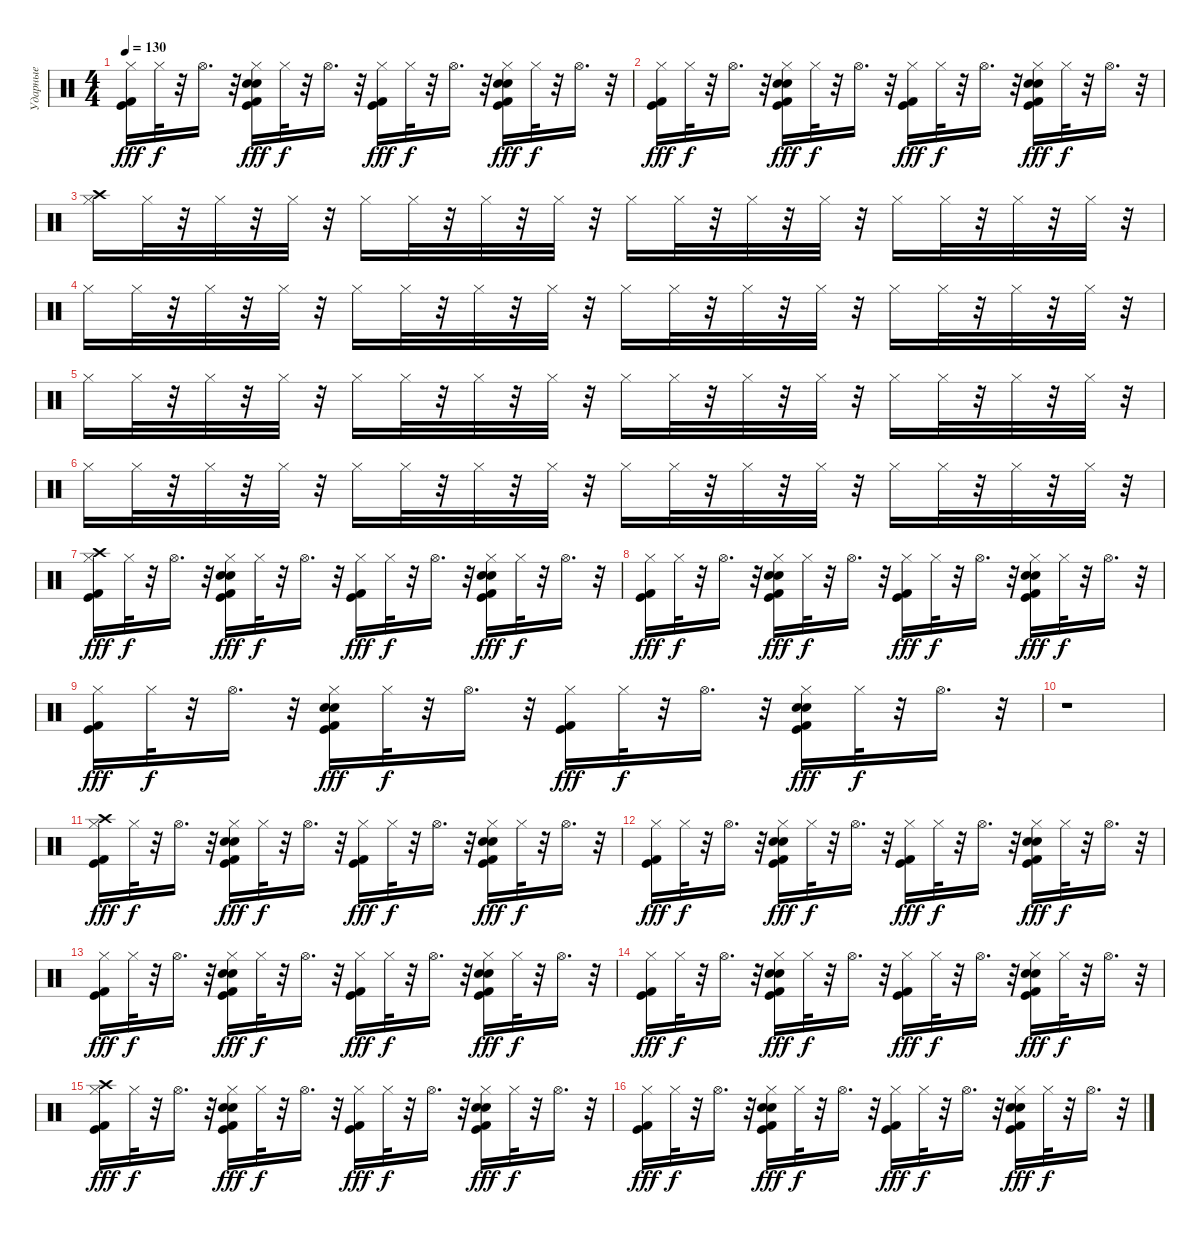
\track ("Ударные" "Ударные") {instrument percussion}
\staff {score}
\articulation defaults
\ts (4 4)
\tempo 130
\clef neutral
\ks c
("Hi-Hat (closed)" "Kick (hit) 2" "Kick (hit)").16{dy fff} "Hi-Hat (closed)".32{dy f} r.32 "Hi-Hat (open)".16{d} r.32 ("Hi-Hat (closed)" "Kick (hit) 2" "Kick (hit)" "Hand Clap (hit)" "Hand Clap (hit)").16{dy fff} "Hi-Hat (closed)".32{dy f} r.32 "Hi-Hat (open)".16{d} r.32 ("Hi-Hat (closed)" "Kick (hit) 2" "Kick (hit)").16{dy fff} "Hi-Hat (closed)".32{dy f} r.32 "Hi-Hat (open)".16{d} r.32 ("Hi-Hat (closed)" "Kick (hit) 2" "Kick (hit)" "Hand Clap (hit)" "Hand Clap (hit)").16{dy fff} "Hi-Hat (closed)".32{dy f} r.32 "Hi-Hat (open)".16{d} r.32 |
("Hi-Hat (closed)" "Kick (hit) 2" "Kick (hit)").16{dy fff} "Hi-Hat (closed)".32{dy f} r.32 "Hi-Hat (open)".16{d} r.32 ("Hi-Hat (closed)" "Kick (hit) 2" "Kick (hit)" "Hand Clap (hit)" "Hand Clap (hit)").16{dy fff} "Hi-Hat (closed)".32{dy f} r.32 "Hi-Hat (open)".16{d} r.32 ("Hi-Hat (closed)" "Kick (hit) 2" "Kick (hit)").16{dy fff} "Hi-Hat (closed)".32{dy f} r.32 "Hi-Hat (open)".16{d} r.32 ("Hi-Hat (closed)" "Kick (hit) 2" "Kick (hit)" "Hand Clap (hit)" "Hand Clap (hit)").16{dy fff} "Hi-Hat (closed)".32{dy f} r.32 "Hi-Hat (open)".16{d} r.32 |
("Crash high (hit)" "Hi-Hat (closed)").16 "Hi-Hat (closed)".32 r.32 "Hi-Hat (closed)".32 r.32 "Hi-Hat (closed)".32 r.32 "Hi-Hat (closed)".16 "Hi-Hat (closed)".32 r.32 "Hi-Hat (closed)".32 r.32 "Hi-Hat (closed)".32 r.32 "Hi-Hat (closed)".16 "Hi-Hat (closed)".32 r.32 "Hi-Hat (closed)".32 r.32 "Hi-Hat (closed)".32 r.32 "Hi-Hat (closed)".16 "Hi-Hat (closed)".32 r.32 "Hi-Hat (closed)".32 r.32 "Hi-Hat (closed)".32 r.32 |
"Hi-Hat (closed)".16 "Hi-Hat (closed)".32 r.32 "Hi-Hat (closed)".32 r.32 "Hi-Hat (closed)".32 r.32 "Hi-Hat (closed)".16 "Hi-Hat (closed)".32 r.32 "Hi-Hat (closed)".32 r.32 "Hi-Hat (closed)".32 r.32 "Hi-Hat (closed)".16 "Hi-Hat (closed)".32 r.32 "Hi-Hat (closed)".32 r.32 "Hi-Hat (closed)".32 r.32 "Hi-Hat (closed)".16 "Hi-Hat (closed)".32 r.32 "Hi-Hat (closed)".32 r.32 "Hi-Hat (closed)".32 r.32 |
"Hi-Hat (closed)".16 "Hi-Hat (closed)".32 r.32 "Hi-Hat (closed)".32 r.32 "Hi-Hat (closed)".32 r.32 "Hi-Hat (closed)".16 "Hi-Hat (closed)".32 r.32 "Hi-Hat (closed)".32 r.32 "Hi-Hat (closed)".32 r.32 "Hi-Hat (closed)".16 "Hi-Hat (closed)".32 r.32 "Hi-Hat (closed)".32 r.32 "Hi-Hat (closed)".32 r.32 "Hi-Hat (closed)".16 "Hi-Hat (closed)".32 r.32 "Hi-Hat (closed)".32 r.32 "Hi-Hat (closed)".32 r.32 |
"Hi-Hat (closed)".16 "Hi-Hat (closed)".32 r.32 "Hi-Hat (closed)".32 r.32 "Hi-Hat (closed)".32 r.32 "Hi-Hat (closed)".16 "Hi-Hat (closed)".32 r.32 "Hi-Hat (closed)".32 r.32 "Hi-Hat (closed)".32 r.32 "Hi-Hat (closed)".16 "Hi-Hat (closed)".32 r.32 "Hi-Hat (closed)".32 r.32 "Hi-Hat (closed)".32 r.32 "Hi-Hat (closed)".16 "Hi-Hat (closed)".32 r.32 "Hi-Hat (closed)".32 r.32 "Hi-Hat (closed)".32 r.32 |
("Crash high (hit)" "Hi-Hat (closed)" "Kick (hit) 2" "Kick (hit)").16{dy fff} "Hi-Hat (closed)".32{dy f} r.32 "Hi-Hat (open)".16{d} r.32 ("Hi-Hat (closed)" "Kick (hit) 2" "Kick (hit)" "Hand Clap (hit)" "Hand Clap (hit)").16{dy fff} "Hi-Hat (closed)".32{dy f} r.32 "Hi-Hat (open)".16{d} r.32 ("Hi-Hat (closed)" "Kick (hit) 2" "Kick (hit)").16{dy fff} "Hi-Hat (closed)".32{dy f} r.32 "Hi-Hat (open)".16{d} r.32 ("Hi-Hat (closed)" "Kick (hit) 2" "Kick (hit)" "Hand Clap (hit)" "Hand Clap (hit)").16{dy fff} "Hi-Hat (closed)".32{dy f} r.32 "Hi-Hat (open)".16{d} r.32 |
("Hi-Hat (closed)" "Kick (hit) 2" "Kick (hit)").16{dy fff} "Hi-Hat (closed)".32{dy f} r.32 "Hi-Hat (open)".16{d} r.32 ("Hi-Hat (closed)" "Kick (hit) 2" "Kick (hit)" "Hand Clap (hit)" "Hand Clap (hit)").16{dy fff} "Hi-Hat (closed)".32{dy f} r.32 "Hi-Hat (open)".16{d} r.32 ("Hi-Hat (closed)" "Kick (hit) 2" "Kick (hit)").16{dy fff} "Hi-Hat (closed)".32{dy f} r.32 "Hi-Hat (open)".16{d} r.32 ("Hi-Hat (closed)" "Kick (hit) 2" "Kick (hit)" "Hand Clap (hit)" "Hand Clap (hit)").16{dy fff} "Hi-Hat (closed)".32{dy f} r.32 "Hi-Hat (open)".16{d} r.32 |
("Hi-Hat (closed)" "Kick (hit) 2" "Kick (hit)").16{dy fff} "Hi-Hat (closed)".32{dy f} r.32 "Hi-Hat (open)".16{d} r.32 ("Hi-Hat (closed)" "Kick (hit) 2" "Kick (hit)" "Hand Clap (hit)" "Hand Clap (hit)").16{dy fff} "Hi-Hat (closed)".32{dy f} r.32 "Hi-Hat (open)".16{d} r.32 ("Hi-Hat (closed)" "Kick (hit) 2" "Kick (hit)").16{dy fff} "Hi-Hat (closed)".32{dy f} r.32 "Hi-Hat (open)".16{d} r.32 ("Hi-Hat (closed)" "Kick (hit) 2" "Kick (hit)" "Hand Clap (hit)" "Hand Clap (hit)").16{dy fff} "Hi-Hat (closed)".32{dy f} r.32 "Hi-Hat (open)".16{d} r.32 |
r.1 |
("Crash high (hit)" "Hi-Hat (closed)" "Kick (hit) 2" "Kick (hit)").16{dy fff} "Hi-Hat (closed)".32{dy f} r.32 "Hi-Hat (open)".16{d} r.32 ("Hi-Hat (closed)" "Kick (hit) 2" "Kick (hit)" "Hand Clap (hit)" "Hand Clap (hit)").16{dy fff} "Hi-Hat (closed)".32{dy f} r.32 "Hi-Hat (open)".16{d} r.32 ("Hi-Hat (closed)" "Kick (hit) 2" "Kick (hit)").16{dy fff} "Hi-Hat (closed)".32{dy f} r.32 "Hi-Hat (open)".16{d} r.32 ("Hi-Hat (closed)" "Kick (hit) 2" "Kick (hit)" "Hand Clap (hit)" "Hand Clap (hit)").16{dy fff} "Hi-Hat (closed)".32{dy f} r.32 "Hi-Hat (open)".16{d} r.32 |
("Hi-Hat (closed)" "Kick (hit) 2" "Kick (hit)").16{dy fff} "Hi-Hat (closed)".32{dy f} r.32 "Hi-Hat (open)".16{d} r.32 ("Hi-Hat (closed)" "Kick (hit) 2" "Kick (hit)" "Hand Clap (hit)" "Hand Clap (hit)").16{dy fff} "Hi-Hat (closed)".32{dy f} r.32 "Hi-Hat (open)".16{d} r.32 ("Hi-Hat (closed)" "Kick (hit) 2" "Kick (hit)").16{dy fff} "Hi-Hat (closed)".32{dy f} r.32 "Hi-Hat (open)".16{d} r.32 ("Hi-Hat (closed)" "Kick (hit) 2" "Kick (hit)" "Hand Clap (hit)" "Hand Clap (hit)").16{dy fff} "Hi-Hat (closed)".32{dy f} r.32 "Hi-Hat (open)".16{d} r.32 |
("Hi-Hat (closed)" "Kick (hit) 2" "Kick (hit)").16{dy fff} "Hi-Hat (closed)".32{dy f} r.32 "Hi-Hat (open)".16{d} r.32 ("Hi-Hat (closed)" "Kick (hit) 2" "Kick (hit)" "Hand Clap (hit)" "Hand Clap (hit)").16{dy fff} "Hi-Hat (closed)".32{dy f} r.32 "Hi-Hat (open)".16{d} r.32 ("Hi-Hat (closed)" "Kick (hit) 2" "Kick (hit)").16{dy fff} "Hi-Hat (closed)".32{dy f} r.32 "Hi-Hat (open)".16{d} r.32 ("Hi-Hat (closed)" "Kick (hit) 2" "Kick (hit)" "Hand Clap (hit)" "Hand Clap (hit)").16{dy fff} "Hi-Hat (closed)".32{dy f} r.32 "Hi-Hat (open)".16{d} r.32 |
("Hi-Hat (closed)" "Kick (hit) 2" "Kick (hit)").16{dy fff} "Hi-Hat (closed)".32{dy f} r.32 "Hi-Hat (open)".16{d} r.32 ("Hi-Hat (closed)" "Kick (hit) 2" "Kick (hit)" "Hand Clap (hit)" "Hand Clap (hit)").16{dy fff} "Hi-Hat (closed)".32{dy f} r.32 "Hi-Hat (open)".16{d} r.32 ("Hi-Hat (closed)" "Kick (hit) 2" "Kick (hit)").16{dy fff} "Hi-Hat (closed)".32{dy f} r.32 "Hi-Hat (open)".16{d} r.32 ("Hi-Hat (closed)" "Kick (hit) 2" "Kick (hit)" "Hand Clap (hit)" "Hand Clap (hit)").16{dy fff} "Hi-Hat (closed)".32{dy f} r.32 "Hi-Hat (open)".16{d} r.32 |
("Crash high (hit)" "Hi-Hat (closed)" "Kick (hit) 2" "Kick (hit)").16{dy fff} "Hi-Hat (closed)".32{dy f} r.32 "Hi-Hat (open)".16{d} r.32 ("Hi-Hat (closed)" "Kick (hit) 2" "Kick (hit)" "Hand Clap (hit)" "Hand Clap (hit)").16{dy fff} "Hi-Hat (closed)".32{dy f} r.32 "Hi-Hat (open)".16{d} r.32 ("Hi-Hat (closed)" "Kick (hit) 2" "Kick (hit)").16{dy fff} "Hi-Hat (closed)".32{dy f} r.32 "Hi-Hat (open)".16{d} r.32 ("Hi-Hat (closed)" "Kick (hit) 2" "Kick (hit)" "Hand Clap (hit)" "Hand Clap (hit)").16{dy fff} "Hi-Hat (closed)".32{dy f} r.32 "Hi-Hat (open)".16{d} r.32 |
("Hi-Hat (closed)" "Kick (hit) 2" "Kick (hit)").16{dy fff} "Hi-Hat (closed)".32{dy f} r.32 "Hi-Hat (open)".16{d} r.32 ("Hi-Hat (closed)" "Kick (hit) 2" "Kick (hit)" "Hand Clap (hit)" "Hand Clap (hit)").16{dy fff} "Hi-Hat (closed)".32{dy f} r.32 "Hi-Hat (open)".16{d} r.32 ("Hi-Hat (closed)" "Kick (hit) 2" "Kick (hit)").16{dy fff} "Hi-Hat (closed)".32{dy f} r.32 "Hi-Hat (open)".16{d} r.32 ("Hi-Hat (closed)" "Kick (hit) 2" "Kick (hit)" "Hand Clap (hit)" "Hand Clap (hit)").16{dy fff} "Hi-Hat (closed)".32{dy f} r.32 "Hi-Hat (open)".16{d} r.32
